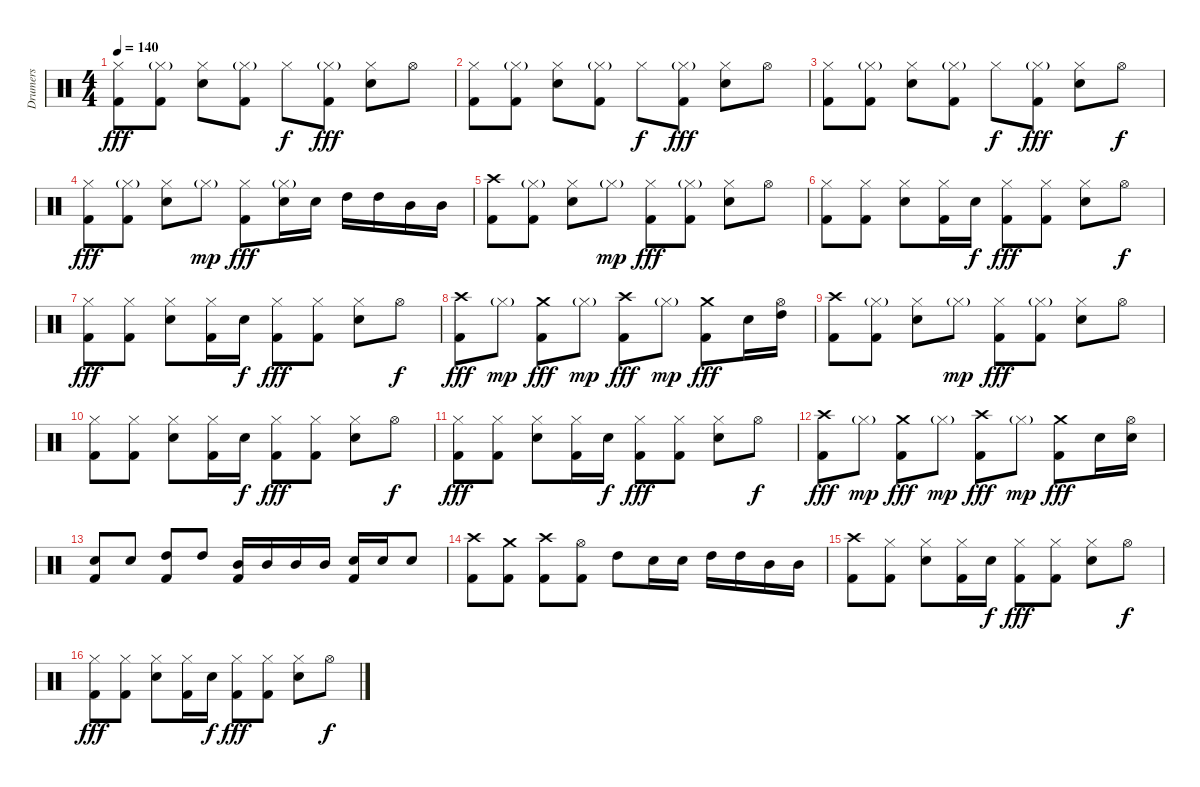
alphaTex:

\track ("Drumers" "Drumers") {instrument percussion}
\staff {score}
\articulation defaults
\ts (4 4)
\tempo 140
\clef neutral
\ks c
("Hi-Hat (closed)" "Kick (hit) 2").8{dy fff} ("Hi-Hat (closed)"{g} "Kick (hit) 2").8 ("Hi-Hat (closed)" "Electric Snare (hit)").8 ("Hi-Hat (closed)"{g} "Kick (hit) 2").8 "Hi-Hat (closed)".8{dy f} ("Hi-Hat (closed)"{g} "Kick (hit) 2").8{dy fff} ("Hi-Hat (closed)" "Electric Snare (hit)").8 "Hi-Hat (open)".8 |
("Hi-Hat (closed)" "Kick (hit) 2").8 ("Hi-Hat (closed)"{g} "Kick (hit) 2").8 ("Hi-Hat (closed)" "Electric Snare (hit)").8 ("Hi-Hat (closed)"{g} "Kick (hit) 2").8 "Hi-Hat (closed)".8{dy f} ("Hi-Hat (closed)"{g} "Kick (hit) 2").8{dy fff} ("Hi-Hat (closed)" "Electric Snare (hit)").8 "Hi-Hat (open)".8 |
("Hi-Hat (closed)" "Kick (hit) 2").8 ("Hi-Hat (closed)"{g} "Kick (hit) 2").8 ("Hi-Hat (closed)" "Electric Snare (hit)").8 ("Hi-Hat (closed)"{g} "Kick (hit) 2").8 "Hi-Hat (closed)".8{dy f} ("Hi-Hat (closed)"{g} "Kick (hit) 2").8{dy fff} ("Hi-Hat (closed)" "Electric Snare (hit)").8 "Hi-Hat (open)".8{dy f} |
("Hi-Hat (closed)" "Kick (hit) 2").8{dy fff} ("Hi-Hat (closed)"{g} "Kick (hit) 2").8 ("Hi-Hat (closed)" "Electric Snare (hit)").8 "Hi-Hat (closed)"{g}.8{dy mp} ("Hi-Hat (closed)" "Kick (hit) 2").8{dy fff} ("Hi-Hat (closed)"{g} "Electric Snare (hit)").16 "Electric Snare (hit)".16 "High Tom (hit)".16 "High Tom (hit)".16 "Mid Tom (hit)".16 "Mid Tom (hit)".16 |
("Crash high (hit)" "Kick (hit) 2").8 ("Hi-Hat (closed)"{g} "Kick (hit) 2").8 ("Hi-Hat (closed)" "Electric Snare (hit)").8 "Hi-Hat (closed)"{g}.8{dy mp} ("Hi-Hat (closed)" "Kick (hit) 2").8{dy fff} ("Hi-Hat (closed)"{g} "Kick (hit) 2").8 ("Hi-Hat (closed)" "Electric Snare (hit)").8 "Hi-Hat (open)".8 |
("Hi-Hat (closed)" "Kick (hit) 2").8 ("Hi-Hat (closed)" "Kick (hit) 2").8 ("Hi-Hat (closed)" "Electric Snare (hit)").8 ("Hi-Hat (closed)" "Kick (hit) 2").16 "Electric Snare (hit)".16{dy f} ("Hi-Hat (closed)" "Kick (hit) 2").8{dy fff} ("Hi-Hat (closed)" "Kick (hit) 2").8 ("Hi-Hat (closed)" "Electric Snare (hit)").8 "Hi-Hat (open)".8{dy f} |
("Hi-Hat (closed)" "Kick (hit) 2").8{dy fff} ("Hi-Hat (closed)" "Kick (hit) 2").8 ("Hi-Hat (closed)" "Electric Snare (hit)").8 ("Hi-Hat (closed)" "Kick (hit) 2").16 "Electric Snare (hit)".16{dy f} ("Hi-Hat (closed)" "Kick (hit) 2").8{dy fff} ("Hi-Hat (closed)" "Kick (hit) 2").8 ("Hi-Hat (closed)" "Electric Snare (hit)").8 "Hi-Hat (open)".8{dy f} |
("Crash high (hit)" "Kick (hit) 2").8{dy fff} "Hi-Hat (closed)"{g}.8{dy mp} ("Crash medium (hit)" "Kick (hit) 2").8{dy fff} "Hi-Hat (closed)"{g}.8{dy mp} ("Crash high (hit)" "Kick (hit) 2").8{dy fff} "Hi-Hat (closed)"{g}.8{dy mp} ("Crash medium (hit)" "Kick (hit) 2").8{dy fff} "Electric Snare (hit)".16 ("Hi-Hat (open)" "High Tom (hit)").16 |
("Crash high (hit)" "Kick (hit) 2").8 ("Hi-Hat (closed)"{g} "Kick (hit) 2").8 ("Hi-Hat (closed)" "Electric Snare (hit)").8 "Hi-Hat (closed)"{g}.8{dy mp} ("Hi-Hat (closed)" "Kick (hit) 2").8{dy fff} ("Hi-Hat (closed)"{g} "Kick (hit) 2").8 ("Hi-Hat (closed)" "Electric Snare (hit)").8 "Hi-Hat (open)".8 |
("Hi-Hat (closed)" "Kick (hit) 2").8 ("Hi-Hat (closed)" "Kick (hit) 2").8 ("Hi-Hat (closed)" "Electric Snare (hit)").8 ("Hi-Hat (closed)" "Kick (hit) 2").16 "Electric Snare (hit)".16{dy f} ("Hi-Hat (closed)" "Kick (hit) 2").8{dy fff} ("Hi-Hat (closed)" "Kick (hit) 2").8 ("Hi-Hat (closed)" "Electric Snare (hit)").8 "Hi-Hat (open)".8{dy f} |
("Hi-Hat (closed)" "Kick (hit) 2").8{dy fff} ("Hi-Hat (closed)" "Kick (hit) 2").8 ("Hi-Hat (closed)" "Electric Snare (hit)").8 ("Hi-Hat (closed)" "Kick (hit) 2").16 "Electric Snare (hit)".16{dy f} ("Hi-Hat (closed)" "Kick (hit) 2").8{dy fff} ("Hi-Hat (closed)" "Kick (hit) 2").8 ("Hi-Hat (closed)" "Electric Snare (hit)").8 "Hi-Hat (open)".8{dy f} |
("Crash high (hit)" "Kick (hit) 2").8{dy fff} "Hi-Hat (closed)"{g}.8{dy mp} ("Crash medium (hit)" "Kick (hit) 2").8{dy fff} "Hi-Hat (closed)"{g}.8{dy mp} ("Crash high (hit)" "Kick (hit) 2").8{dy fff} "Hi-Hat (closed)"{g}.8{dy mp} ("Crash medium (hit)" "Kick (hit) 2").8{dy fff} "Electric Snare (hit)".16 ("Hi-Hat (open)" "Electric Snare (hit)").16 |
("Electric Snare (hit)" "Kick (hit) 2").8 "Electric Snare (hit)".8 ("High Tom (hit)" "Kick (hit) 2").8 "High Tom (hit)".8 ("Mid Tom (hit)" "Kick (hit) 2").16 "Mid Tom (hit)".16 "Mid Tom (hit)".16 "Mid Tom (hit)".16 ("Electric Snare (hit)" "Kick (hit) 2").16 "Electric Snare (hit)".16 "Electric Snare (hit)".8 |
("Crash high (hit)" "Kick (hit) 2").8 ("Crash medium (hit)" "Kick (hit) 2").8 ("Crash high (hit)" "Kick (hit) 2").8 ("Hi-Hat (open)" "Kick (hit) 2").8 "High Tom (hit)".8 "Electric Snare (hit)".16 "Electric Snare (hit)".16 "High Tom (hit)".16 "High Tom (hit)".16 "Mid Tom (hit)".16 "Mid Tom (hit)".16 |
("Crash high (hit)" "Kick (hit) 2").8 ("Hi-Hat (closed)" "Kick (hit) 2").8 ("Hi-Hat (closed)" "Electric Snare (hit)").8 ("Hi-Hat (closed)" "Kick (hit) 2").16 "Electric Snare (hit)".16{dy f} ("Hi-Hat (closed)" "Kick (hit) 2").8{dy fff} ("Hi-Hat (closed)" "Kick (hit) 2").8 ("Hi-Hat (closed)" "Electric Snare (hit)").8 "Hi-Hat (open)".8{dy f} |
("Hi-Hat (closed)" "Kick (hit) 2").8{dy fff} ("Hi-Hat (closed)" "Kick (hit) 2").8 ("Hi-Hat (closed)" "Electric Snare (hit)").8 ("Hi-Hat (closed)" "Kick (hit) 2").16 "Electric Snare (hit)".16{dy f} ("Hi-Hat (closed)" "Kick (hit) 2").8{dy fff} ("Hi-Hat (closed)" "Kick (hit) 2").8 ("Hi-Hat (closed)" "Electric Snare (hit)").8 "Hi-Hat (open)".8{dy f}
